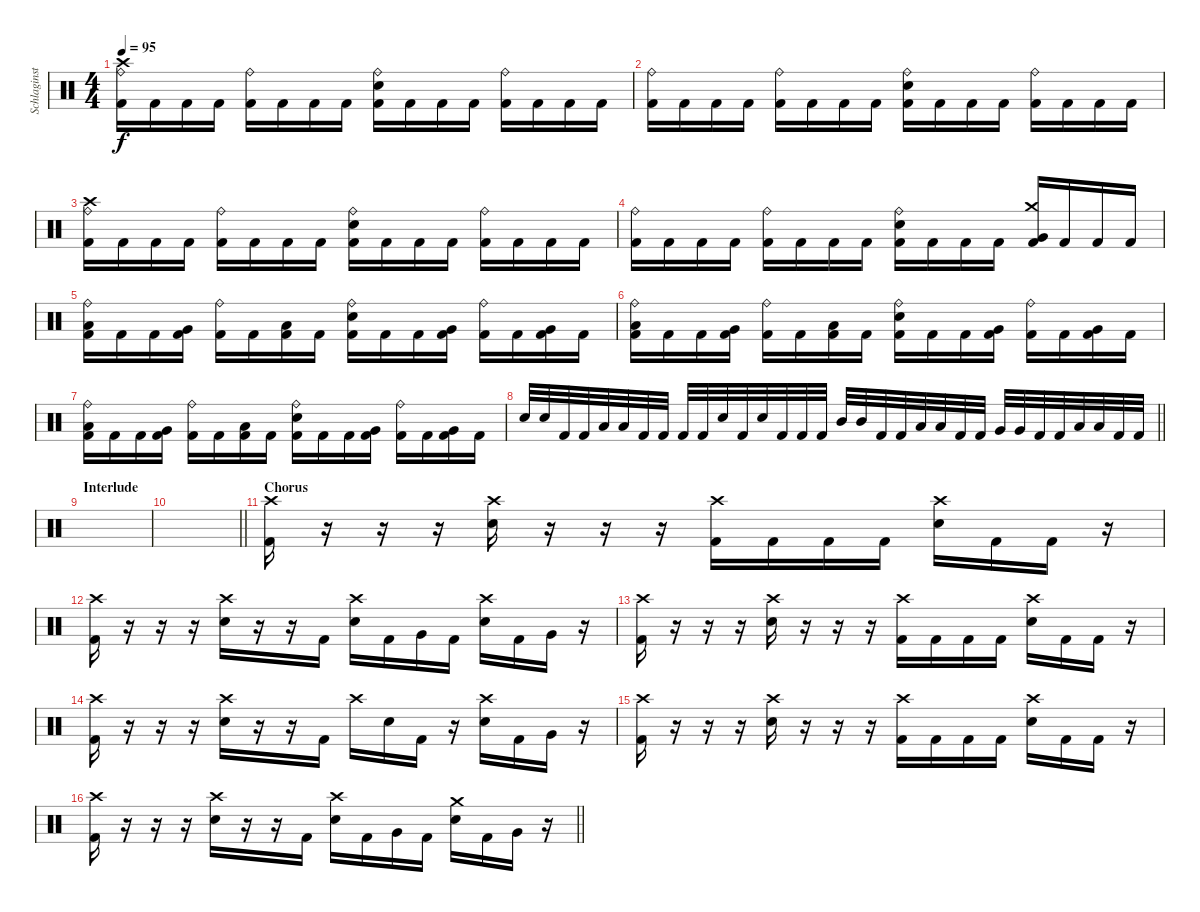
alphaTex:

\track ("Schlaginstrumente - Auswahl" "Schlaginst") {instrument percussion}
\staff {score}
\articulation defaults
\ts (4 4)
\tempo 95
\clef neutral
\ks c
("Ride (bell)" "Crash high (hit)" "Kick (hit) 2").16{dy f} "Kick (hit) 2".16 "Kick (hit) 2".16 "Kick (hit) 2".16 ("Ride (bell)" "Kick (hit) 2").16 "Kick (hit) 2".16 "Kick (hit) 2".16 "Kick (hit) 2".16 ("Ride (bell)" "Electric Snare (hit)" "Kick (hit) 2").16 "Kick (hit) 2".16 "Kick (hit) 2".16 "Kick (hit) 2".16 ("Ride (bell)" "Kick (hit) 2").16 "Kick (hit) 2".16 "Kick (hit) 2".16 "Kick (hit) 2".16 |
("Ride (bell)" "Kick (hit) 2").16 "Kick (hit) 2".16 "Kick (hit) 2".16 "Kick (hit) 2".16 ("Ride (bell)" "Kick (hit) 2").16 "Kick (hit) 2".16 "Kick (hit) 2".16 "Kick (hit) 2".16 ("Ride (bell)" "Electric Snare (hit)" "Kick (hit) 2").16 "Kick (hit) 2".16 "Kick (hit) 2".16 "Kick (hit) 2".16 ("Ride (bell)" "Kick (hit) 2").16 "Kick (hit) 2".16 "Kick (hit) 2".16 "Kick (hit) 2".16 |
("Ride (bell)" "Crash high (hit)" "Kick (hit) 2").16 "Kick (hit) 2".16 "Kick (hit) 2".16 "Kick (hit) 2".16 ("Ride (bell)" "Kick (hit) 2").16 "Kick (hit) 2".16 "Kick (hit) 2".16 "Kick (hit) 2".16 ("Ride (bell)" "Electric Snare (hit)" "Kick (hit) 2").16 "Kick (hit) 2".16 "Kick (hit) 2".16 "Kick (hit) 2".16 ("Ride (bell)" "Kick (hit) 2").16 "Kick (hit) 2".16 "Kick (hit) 2".16 "Kick (hit) 2".16 |
("Ride (bell)" "Kick (hit) 2").16 "Kick (hit) 2".16 "Kick (hit) 2".16 "Kick (hit) 2".16 ("Ride (bell)" "Kick (hit) 2").16 "Kick (hit) 2".16 "Kick (hit) 2".16 "Kick (hit) 2".16 ("Ride (bell)" "Electric Snare (hit)" "Kick (hit) 2").16 "Kick (hit) 2".16 "Kick (hit) 2".16 "Kick (hit) 2".16 ("Crash medium (hit)" "Very Low Tom (hit)" "Kick (hit) 2").16 "Kick (hit) 2".16 "Kick (hit) 2".16 "Kick (hit) 2".16 |
("Ride (bell)" "Low Tom (hit)" "Kick (hit) 2").16 "Kick (hit) 2".16 "Kick (hit) 2".16 ("Very Low Tom (hit)" "Kick (hit) 2").16 ("Ride (bell)" "Kick (hit) 2").16 "Kick (hit) 2".16 ("Low Floor Tom (hit)" "Kick (hit) 2").16 "Kick (hit) 2".16 ("Ride (bell)" "Electric Snare (hit)" "Kick (hit) 2").16 "Kick (hit) 2".16 "Kick (hit) 2".16 ("Very Low Tom (hit)" "Kick (hit) 2").16 ("Ride (bell)" "Kick (hit) 2").16 "Kick (hit) 2".16 ("Very Low Tom (hit)" "Kick (hit) 2").16 "Kick (hit) 2".16 |
("Ride (bell)" "Low Tom (hit)" "Kick (hit) 2").16 "Kick (hit) 2".16 "Kick (hit) 2".16 ("Very Low Tom (hit)" "Kick (hit) 2").16 ("Ride (bell)" "Kick (hit) 2").16 "Kick (hit) 2".16 ("Low Floor Tom (hit)" "Kick (hit) 2").16 "Kick (hit) 2".16 ("Ride (bell)" "Electric Snare (hit)" "Kick (hit) 2").16 "Kick (hit) 2".16 "Kick (hit) 2".16 ("Very Low Tom (hit)" "Kick (hit) 2").16 ("Ride (bell)" "Kick (hit) 2").16 "Kick (hit) 2".16 ("Very Low Tom (hit)" "Kick (hit) 2").16 "Kick (hit) 2".16 |
("Ride (bell)" "Low Tom (hit)" "Kick (hit) 2").16 "Kick (hit) 2".16 "Kick (hit) 2".16 ("Very Low Tom (hit)" "Kick (hit) 2").16 ("Ride (bell)" "Kick (hit) 2").16 "Kick (hit) 2".16 ("Low Floor Tom (hit)" "Kick (hit) 2").16 "Kick (hit) 2".16 ("Ride (bell)" "Electric Snare (hit)" "Kick (hit) 2").16 "Kick (hit) 2".16 "Kick (hit) 2".16 ("Very Low Tom (hit)" "Kick (hit) 2").16 ("Ride (bell)" "Kick (hit) 2").16 "Kick (hit) 2".16 ("Very Low Tom (hit)" "Kick (hit) 2").16 "Kick (hit) 2".16 |
\barLineRight lightlight "Electric Snare (hit)".32 "Electric Snare (hit)".32 "Kick (hit) 2".32 "Kick (hit) 2".32 "Low Tom (hit)".32 "Low Tom (hit)".32 "Kick (hit) 2".32 "Kick (hit) 2".32 "Kick (hit) 2".32 "Kick (hit) 2".32 "Electric Snare (hit)".32 "Kick (hit) 2".32 "Electric Snare (hit)".32 "Kick (hit) 2".32 "Kick (hit) 2".32 "Kick (hit) 2".32 "Mid Tom (hit)".32 "Mid Tom (hit)".32 "Kick (hit) 2".32 "Kick (hit) 2".32 "Low Tom (hit)".32 "Low Tom (hit)".32 "Kick (hit) 2".32 "Kick (hit) 2".32 "Very Low Tom (hit)".32 "Very Low Tom (hit)".32 "Kick (hit) 2".32 "Kick (hit) 2".32 "Low Floor Tom (hit)".32 "Low Floor Tom (hit)".32 "Kick (hit) 2".32 "Kick (hit) 2".32
|
\section ("" "Interlude")
|
\barLineRight lightlight
|
\section ("" "Chorus")
("Crash high (hit)" "Kick (hit) 2").16 r.16 r.16 r.16 ("Crash high (hit)" "Electric Snare (hit)").16 r.16 r.16 r.16 ("Crash high (hit)" "Kick (hit) 2").16 "Kick (hit) 2".16 "Kick (hit) 2".16 "Kick (hit) 2".16 ("Crash high (hit)" "Electric Snare (hit)").16 "Kick (hit) 2".16 "Kick (hit) 2".16 r.16 |
("Crash high (hit)" "Kick (hit) 2").16 r.16 r.16 r.16 ("Crash high (hit)" "Electric Snare (hit)").16 r.16 r.16 "Kick (hit) 2".16 ("Crash high (hit)" "Electric Snare (hit)").16 "Kick (hit) 2".16 "Very Low Tom (hit)".16 "Kick (hit) 2".16 ("Crash high (hit)" "Electric Snare (hit)").16 "Kick (hit) 2".16 "Very Low Tom (hit)".16 r.16 |
("Crash high (hit)" "Kick (hit) 2").16 r.16 r.16 r.16 ("Crash high (hit)" "Electric Snare (hit)").16 r.16 r.16 r.16 ("Crash high (hit)" "Kick (hit) 2").16 "Kick (hit) 2".16 "Kick (hit) 2".16 "Kick (hit) 2".16 ("Crash high (hit)" "Electric Snare (hit)").16 "Kick (hit) 2".16 "Kick (hit) 2".16 r.16 |
("Crash high (hit)" "Kick (hit) 2").16 r.16 r.16 r.16 ("Crash high (hit)" "Electric Snare (hit)").16 r.16 r.16 "Kick (hit) 2".16 "Crash high (hit)".16 "Electric Snare (hit)".16 "Kick (hit) 2".16 r.16 ("Crash high (hit)" "Electric Snare (hit)").16 "Kick (hit) 2".16 "Very Low Tom (hit)".16 r.16 |
("Crash high (hit)" "Kick (hit) 2").16 r.16 r.16 r.16 ("Crash high (hit)" "Electric Snare (hit)").16 r.16 r.16 r.16 ("Crash high (hit)" "Kick (hit) 2").16 "Kick (hit) 2".16 "Kick (hit) 2".16 "Kick (hit) 2".16 ("Crash high (hit)" "Electric Snare (hit)").16 "Kick (hit) 2".16 "Kick (hit) 2".16 r.16 |
\barLineRight lightlight
("Crash high (hit)" "Kick (hit) 2").16 r.16 r.16 r.16 ("Crash high (hit)" "Electric Snare (hit)").16 r.16 r.16 "Kick (hit) 2".16 ("Crash high (hit)" "Electric Snare (hit)").16 "Kick (hit) 2".16 "Very Low Tom (hit)".16 "Kick (hit) 2".16 ("Crash medium (hit)" "Electric Snare (hit)").16 "Kick (hit) 2".16 "Very Low Tom (hit)".16 r.16
